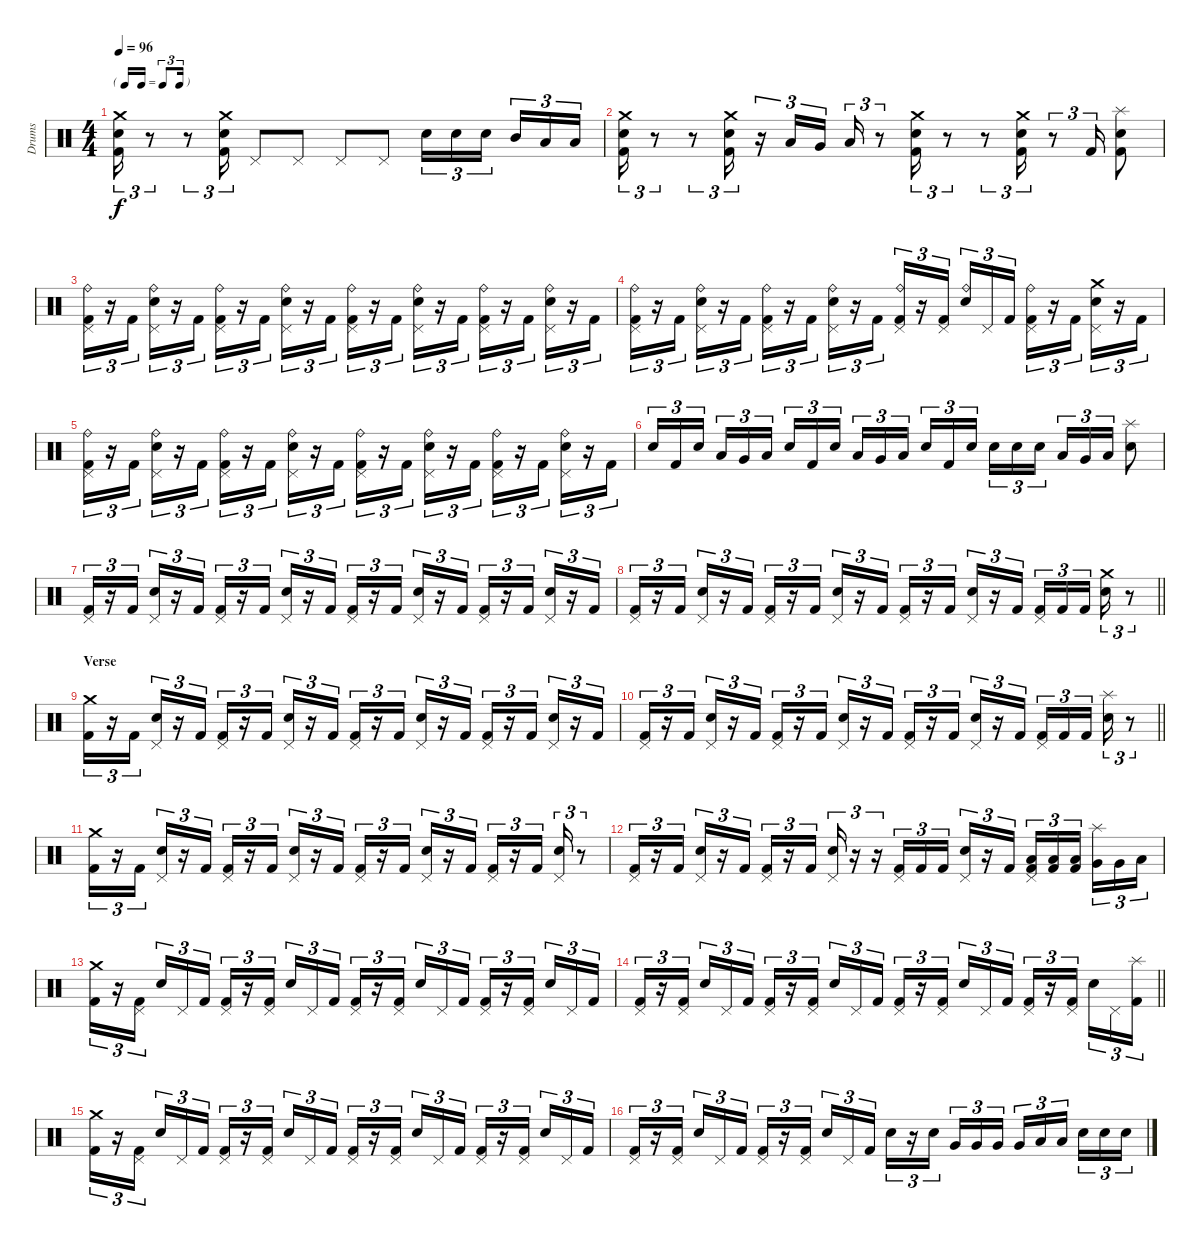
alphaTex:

\track ("Drums" "Drums") {instrument percussion}
\staff {score}
\articulation defaults
\ts (4 4)
\tf triplet16th
\tempo 96
\clef neutral
\ks c
("Crash medium (hit)" "Snare (hit) 2" "Kick (hit) 2").16{tu (3 2) dy f} r.8{tu (3 2)} r.8{tu (3 2)} ("Crash medium (hit)" "Snare (hit) 2" "Kick (hit) 2").16{tu (3 2)} "Pedal Hi-Hat (hit)".8 "Pedal Hi-Hat (hit)".8 "Pedal Hi-Hat (hit)".8 "Pedal Hi-Hat (hit)".8 "Snare (hit) 2".16{tu (3 2)} "Snare (hit) 2".16{tu (3 2)} "Snare (hit) 2".16{tu (3 2) beam splitsecondary} "Mid Tom (hit)".16{tu (3 2)} "Low Tom (hit)".16{tu (3 2)} "Low Floor Tom (hit)".16{tu (3 2)} |
("Crash medium (hit)" "Snare (hit) 2" "Kick (hit) 2").16{tu (3 2)} r.8{tu (3 2)} r.8{tu (3 2)} ("Crash medium (hit)" "Snare (hit) 2" "Kick (hit) 2").16{tu (3 2)} r.16{tu (3 2)} "Low Tom (hit)".16{tu (3 2)} "Very Low Tom (hit)".16{tu (3 2) beam splitsecondary} "Low Floor Tom (hit)".16{tu (3 2)} r.8{tu (3 2)} ("Crash medium (hit)" "Snare (hit) 2" "Kick (hit) 2").16{tu (3 2)} r.8{tu (3 2)} r.8{tu (3 2)} ("Crash medium (hit)" "Snare (hit) 2" "Kick (hit) 2").16{tu (3 2)} r.8{tu (3 2)} "Kick (hit) 2".16{tu (3 2)} ("Splash (hit)" "Snare (hit) 2" "Kick (hit) 2").8 |
("Ride (bell)" "Pedal Hi-Hat (hit)" "Kick (hit) 2").16{tu (3 2)} r.16{tu (3 2)} "Kick (hit) 2".16{tu (3 2)} ("Ride (bell)" "Pedal Hi-Hat (hit)" "Snare (hit) 2").16{tu (3 2)} r.16{tu (3 2)} "Kick (hit) 2".16{tu (3 2)} ("Ride (bell)" "Pedal Hi-Hat (hit)" "Kick (hit) 2").16{tu (3 2)} r.16{tu (3 2)} "Kick (hit) 2".16{tu (3 2)} ("Ride (bell)" "Pedal Hi-Hat (hit)" "Snare (hit) 2").16{tu (3 2)} r.16{tu (3 2)} "Kick (hit) 2".16{tu (3 2)} ("Ride (bell)" "Pedal Hi-Hat (hit)" "Kick (hit) 2").16{tu (3 2)} r.16{tu (3 2)} "Kick (hit) 2".16{tu (3 2)} ("Ride (bell)" "Pedal Hi-Hat (hit)" "Snare (hit) 2").16{tu (3 2)} r.16{tu (3 2)} "Kick (hit) 2".16{tu (3 2)} ("Ride (bell)" "Pedal Hi-Hat (hit)" "Kick (hit) 2").16{tu (3 2)} r.16{tu (3 2)} "Kick (hit) 2".16{tu (3 2)} ("Ride (bell)" "Pedal Hi-Hat (hit)" "Snare (hit) 2").16{tu (3 2)} r.16{tu (3 2)} "Kick (hit) 2".16{tu (3 2)} |
("Ride (bell)" "Pedal Hi-Hat (hit)" "Kick (hit) 2").16{tu (3 2)} r.16{tu (3 2)} "Kick (hit) 2".16{tu (3 2)} ("Ride (bell)" "Pedal Hi-Hat (hit)" "Snare (hit) 2").16{tu (3 2)} r.16{tu (3 2)} "Kick (hit) 2".16{tu (3 2)} ("Ride (bell)" "Pedal Hi-Hat (hit)" "Kick (hit) 2").16{tu (3 2)} r.16{tu (3 2)} "Kick (hit) 2".16{tu (3 2)} ("Ride (bell)" "Pedal Hi-Hat (hit)" "Snare (hit) 2").16{tu (3 2)} r.16{tu (3 2)} "Kick (hit) 2".16{tu (3 2)} ("Ride (bell)" "Pedal Hi-Hat (hit)" "Kick (hit) 2").16{tu (3 2)} r.16{tu (3 2)} ("Pedal Hi-Hat (hit)" "Kick (hit) 2").16{tu (3 2) beam splitsecondary} ("Ride (bell)" "Snare (hit) 2").16{tu (3 2)} "Pedal Hi-Hat (hit)".16{tu (3 2)} "Kick (hit) 2".16{tu (3 2)} ("Ride (bell)" "Pedal Hi-Hat (hit)" "Kick (hit) 2").16{tu (3 2)} r.16{tu (3 2)} "Kick (hit) 2".16{tu (3 2)} ("Crash medium (hit)" "Pedal Hi-Hat (hit)" "Snare (hit) 2").16{tu (3 2)} r.16{tu (3 2)} "Kick (hit) 2".16{tu (3 2)} |
("Ride (bell)" "Pedal Hi-Hat (hit)" "Kick (hit) 2").16{tu (3 2)} r.16{tu (3 2)} "Kick (hit) 2".16{tu (3 2)} ("Ride (bell)" "Pedal Hi-Hat (hit)" "Snare (hit) 2").16{tu (3 2)} r.16{tu (3 2)} "Kick (hit) 2".16{tu (3 2)} ("Ride (bell)" "Pedal Hi-Hat (hit)" "Kick (hit) 2").16{tu (3 2)} r.16{tu (3 2)} "Kick (hit) 2".16{tu (3 2)} ("Ride (bell)" "Pedal Hi-Hat (hit)" "Snare (hit) 2").16{tu (3 2)} r.16{tu (3 2)} "Kick (hit) 2".16{tu (3 2)} ("Ride (bell)" "Pedal Hi-Hat (hit)" "Kick (hit) 2").16{tu (3 2)} r.16{tu (3 2)} "Kick (hit) 2".16{tu (3 2)} ("Ride (bell)" "Pedal Hi-Hat (hit)" "Snare (hit) 2").16{tu (3 2)} r.16{tu (3 2)} "Kick (hit) 2".16{tu (3 2)} ("Ride (bell)" "Pedal Hi-Hat (hit)" "Kick (hit) 2").16{tu (3 2)} r.16{tu (3 2)} "Kick (hit) 2".16{tu (3 2)} ("Ride (bell)" "Pedal Hi-Hat (hit)" "Snare (hit) 2").16{tu (3 2)} r.16{tu (3 2)} "Kick (hit) 2".16{tu (3 2)} |
"Snare (hit) 2".16{tu (3 2)} "Kick (hit) 2".16{tu (3 2)} "Snare (hit) 2".16{tu (3 2) beam splitsecondary} "Low Tom (hit)".16{tu (3 2)} "Very Low Tom (hit)".16{tu (3 2)} "Low Floor Tom (hit)".16{tu (3 2)} "Snare (hit) 2".16{tu (3 2)} "Kick (hit) 2".16{tu (3 2)} "Snare (hit) 2".16{tu (3 2) beam splitsecondary} "Low Tom (hit)".16{tu (3 2)} "Very Low Tom (hit)".16{tu (3 2)} "Low Floor Tom (hit)".16{tu (3 2)} "Snare (hit) 2".16{tu (3 2)} "Kick (hit) 2".16{tu (3 2)} "Snare (hit) 2".16{tu (3 2) beam splitsecondary} "Snare (hit) 2".16{tu (3 2)} "Snare (hit) 2".16{tu (3 2)} "Snare (hit) 2".16{tu (3 2)} "Low Tom (hit)".16{tu (3 2)} "Very Low Tom (hit)".16{tu (3 2)} "Low Floor Tom (hit)".16{tu (3 2)} ("Splash (hit)" "Snare (hit) 2").8 |
("Pedal Hi-Hat (hit)" "Kick (hit) 2").16{tu (3 2)} r.16{tu (3 2)} "Kick (hit) 2".16{tu (3 2)} ("Pedal Hi-Hat (hit)" "Snare (hit) 2").16{tu (3 2)} r.16{tu (3 2)} "Kick (hit) 2".16{tu (3 2)} ("Pedal Hi-Hat (hit)" "Kick (hit) 2").16{tu (3 2)} r.16{tu (3 2)} "Kick (hit) 2".16{tu (3 2)} ("Pedal Hi-Hat (hit)" "Snare (hit) 2").16{tu (3 2)} r.16{tu (3 2)} "Kick (hit) 2".16{tu (3 2)} ("Pedal Hi-Hat (hit)" "Kick (hit) 2").16{tu (3 2)} r.16{tu (3 2)} "Kick (hit) 2".16{tu (3 2)} ("Pedal Hi-Hat (hit)" "Snare (hit) 2").16{tu (3 2)} r.16{tu (3 2)} "Kick (hit) 2".16{tu (3 2)} ("Pedal Hi-Hat (hit)" "Kick (hit) 2").16{tu (3 2)} r.16{tu (3 2)} "Kick (hit) 2".16{tu (3 2)} ("Pedal Hi-Hat (hit)" "Snare (hit) 2").16{tu (3 2)} r.16{tu (3 2)} "Kick (hit) 2".16{tu (3 2)} |
\barLineRight lightlight
("Pedal Hi-Hat (hit)" "Kick (hit) 2").16{tu (3 2)} r.16{tu (3 2)} "Kick (hit) 2".16{tu (3 2)} ("Pedal Hi-Hat (hit)" "Snare (hit) 2").16{tu (3 2)} r.16{tu (3 2)} "Kick (hit) 2".16{tu (3 2)} ("Pedal Hi-Hat (hit)" "Kick (hit) 2").16{tu (3 2)} r.16{tu (3 2)} "Kick (hit) 2".16{tu (3 2)} ("Pedal Hi-Hat (hit)" "Snare (hit) 2").16{tu (3 2)} r.16{tu (3 2)} "Kick (hit) 2".16{tu (3 2)} ("Pedal Hi-Hat (hit)" "Kick (hit) 2").16{tu (3 2)} r.16{tu (3 2)} "Kick (hit) 2".16{tu (3 2)} ("Pedal Hi-Hat (hit)" "Snare (hit) 2").16{tu (3 2)} r.16{tu (3 2)} "Kick (hit) 2".16{tu (3 2)} ("Pedal Hi-Hat (hit)" "Kick (hit) 2").16{tu (3 2)} "Kick (hit) 2".16{tu (3 2)} "Kick (hit) 2".16{tu (3 2) beam splitsecondary} ("Crash medium (hit)" "Snare (hit) 2").16{tu (3 2)} r.8{tu (3 2)} |
\section ("" "Verse")
("Crash medium (hit)" "Kick (hit) 2").16{tu (3 2)} r.16{tu (3 2)} "Kick (hit) 2".16{tu (3 2)} ("Pedal Hi-Hat (hit)" "Snare (hit) 2").16{tu (3 2)} r.16{tu (3 2)} "Kick (hit) 2".16{tu (3 2)} ("Pedal Hi-Hat (hit)" "Kick (hit) 2").16{tu (3 2)} r.16{tu (3 2)} "Kick (hit) 2".16{tu (3 2)} ("Pedal Hi-Hat (hit)" "Snare (hit) 2").16{tu (3 2)} r.16{tu (3 2)} "Kick (hit) 2".16{tu (3 2)} ("Pedal Hi-Hat (hit)" "Kick (hit) 2").16{tu (3 2)} r.16{tu (3 2)} "Kick (hit) 2".16{tu (3 2)} ("Pedal Hi-Hat (hit)" "Snare (hit) 2").16{tu (3 2)} r.16{tu (3 2)} "Kick (hit) 2".16{tu (3 2)} ("Pedal Hi-Hat (hit)" "Kick (hit) 2").16{tu (3 2)} r.16{tu (3 2)} "Kick (hit) 2".16{tu (3 2)} ("Pedal Hi-Hat (hit)" "Snare (hit) 2").16{tu (3 2)} r.16{tu (3 2)} "Kick (hit) 2".16{tu (3 2)} |
\barLineRight lightlight
("Pedal Hi-Hat (hit)" "Kick (hit) 2").16{tu (3 2)} r.16{tu (3 2)} "Kick (hit) 2".16{tu (3 2)} ("Pedal Hi-Hat (hit)" "Snare (hit) 2").16{tu (3 2)} r.16{tu (3 2)} "Kick (hit) 2".16{tu (3 2)} ("Pedal Hi-Hat (hit)" "Kick (hit) 2").16{tu (3 2)} r.16{tu (3 2)} "Kick (hit) 2".16{tu (3 2)} ("Pedal Hi-Hat (hit)" "Snare (hit) 2").16{tu (3 2)} r.16{tu (3 2)} "Kick (hit) 2".16{tu (3 2)} ("Pedal Hi-Hat (hit)" "Kick (hit) 2").16{tu (3 2)} r.16{tu (3 2)} "Kick (hit) 2".16{tu (3 2)} ("Pedal Hi-Hat (hit)" "Snare (hit) 2").16{tu (3 2)} r.16{tu (3 2)} "Kick (hit) 2".16{tu (3 2)} ("Pedal Hi-Hat (hit)" "Kick (hit) 2").16{tu (3 2)} "Kick (hit) 2".16{tu (3 2)} "Kick (hit) 2".16{tu (3 2) beam splitsecondary} ("Splash (hit)" "Snare (hit) 2").16{tu (3 2)} r.8{tu (3 2)} |
("Crash medium (hit)" "Kick (hit) 2").16{tu (3 2)} r.16{tu (3 2)} "Kick (hit) 2".16{tu (3 2)} ("Pedal Hi-Hat (hit)" "Snare (hit) 2").16{tu (3 2)} r.16{tu (3 2)} "Kick (hit) 2".16{tu (3 2)} ("Pedal Hi-Hat (hit)" "Kick (hit) 2").16{tu (3 2)} r.16{tu (3 2)} "Kick (hit) 2".16{tu (3 2)} ("Pedal Hi-Hat (hit)" "Snare (hit) 2").16{tu (3 2)} r.16{tu (3 2)} "Kick (hit) 2".16{tu (3 2)} ("Pedal Hi-Hat (hit)" "Kick (hit) 2").16{tu (3 2)} r.16{tu (3 2)} "Kick (hit) 2".16{tu (3 2)} ("Pedal Hi-Hat (hit)" "Snare (hit) 2").16{tu (3 2)} r.16{tu (3 2)} "Kick (hit) 2".16{tu (3 2)} ("Pedal Hi-Hat (hit)" "Kick (hit) 2").16{tu (3 2)} r.16{tu (3 2)} "Kick (hit) 2".16{tu (3 2)} ("Pedal Hi-Hat (hit)" "Snare (hit) 2").16{tu (3 2)} r.8{tu (3 2)} |
("Pedal Hi-Hat (hit)" "Kick (hit) 2").16{tu (3 2)} r.16{tu (3 2)} "Kick (hit) 2".16{tu (3 2)} ("Pedal Hi-Hat (hit)" "Snare (hit) 2").16{tu (3 2)} r.16{tu (3 2)} "Kick (hit) 2".16{tu (3 2)} ("Pedal Hi-Hat (hit)" "Kick (hit) 2").16{tu (3 2)} r.16{tu (3 2)} "Kick (hit) 2".16{tu (3 2)} ("Pedal Hi-Hat (hit)" "Snare (hit) 2").16{tu (3 2)} r.16{tu (3 2)} r.16{tu (3 2)} ("Pedal Hi-Hat (hit)" "Kick (hit) 2").16{tu (3 2)} "Kick (hit) 2".16{tu (3 2)} "Kick (hit) 2".16{tu (3 2) beam splitsecondary} ("Pedal Hi-Hat (hit)" "Snare (hit) 2").16{tu (3 2)} r.16{tu (3 2)} "Kick (hit) 2".16{tu (3 2)} ("Pedal Hi-Hat (hit)" "Low Tom (hit)" "Kick (hit) 2").16{tu (3 2)} ("Low Tom (hit)" "Kick (hit) 2").16{tu (3 2)} ("Low Tom (hit)" "Kick (hit) 2").16{tu (3 2) beam splitsecondary} ("Splash (hit)" "Very Low Tom (hit)").16{tu (3 2)} "Very Low Tom (hit)".16{tu (3 2)} "Low Floor Tom (hit)".16{tu (3 2)} |
("Crash medium (hit)" "Kick (hit) 2").16{tu (3 2)} r.16{tu (3 2)} ("Pedal Hi-Hat (hit)" "Kick (hit) 2").16{tu (3 2) beam splitsecondary} "Snare (hit) 2".16{tu (3 2)} "Pedal Hi-Hat (hit)".16{tu (3 2)} "Kick (hit) 2".16{tu (3 2)} ("Pedal Hi-Hat (hit)" "Kick (hit) 2").16{tu (3 2)} r.16{tu (3 2)} ("Pedal Hi-Hat (hit)" "Kick (hit) 2").16{tu (3 2) beam splitsecondary} "Snare (hit) 2".16{tu (3 2)} "Pedal Hi-Hat (hit)".16{tu (3 2)} "Kick (hit) 2".16{tu (3 2)} ("Pedal Hi-Hat (hit)" "Kick (hit) 2").16{tu (3 2)} r.16{tu (3 2)} ("Pedal Hi-Hat (hit)" "Kick (hit) 2").16{tu (3 2) beam splitsecondary} "Snare (hit) 2".16{tu (3 2)} "Pedal Hi-Hat (hit)".16{tu (3 2)} "Kick (hit) 2".16{tu (3 2)} ("Pedal Hi-Hat (hit)" "Kick (hit) 2").16{tu (3 2)} r.16{tu (3 2)} ("Pedal Hi-Hat (hit)" "Kick (hit) 2").16{tu (3 2) beam splitsecondary} "Snare (hit) 2".16{tu (3 2)} "Pedal Hi-Hat (hit)".16{tu (3 2)} "Kick (hit) 2".16{tu (3 2)} |
\barLineRight lightlight
("Pedal Hi-Hat (hit)" "Kick (hit) 2").16{tu (3 2)} r.16{tu (3 2)} ("Pedal Hi-Hat (hit)" "Kick (hit) 2").16{tu (3 2) beam splitsecondary} "Snare (hit) 2".16{tu (3 2)} "Pedal Hi-Hat (hit)".16{tu (3 2)} "Kick (hit) 2".16{tu (3 2)} ("Pedal Hi-Hat (hit)" "Kick (hit) 2").16{tu (3 2)} r.16{tu (3 2)} ("Pedal Hi-Hat (hit)" "Kick (hit) 2").16{tu (3 2) beam splitsecondary} "Snare (hit) 2".16{tu (3 2)} "Pedal Hi-Hat (hit)".16{tu (3 2)} "Kick (hit) 2".16{tu (3 2)} ("Pedal Hi-Hat (hit)" "Kick (hit) 2").16{tu (3 2)} r.16{tu (3 2)} ("Pedal Hi-Hat (hit)" "Kick (hit) 2").16{tu (3 2) beam splitsecondary} "Snare (hit) 2".16{tu (3 2)} "Pedal Hi-Hat (hit)".16{tu (3 2)} "Kick (hit) 2".16{tu (3 2)} ("Pedal Hi-Hat (hit)" "Kick (hit) 2").16{tu (3 2)} r.16{tu (3 2)} ("Pedal Hi-Hat (hit)" "Kick (hit) 2").16{tu (3 2) beam splitsecondary} "Snare (hit) 2".16{tu (3 2)} "Pedal Hi-Hat (hit)".16{tu (3 2)} ("Splash (hit)" "Kick (hit) 2").16{tu (3 2)} |
("Crash medium (hit)" "Kick (hit) 2").16{tu (3 2)} r.16{tu (3 2)} ("Pedal Hi-Hat (hit)" "Kick (hit) 2").16{tu (3 2) beam splitsecondary} "Snare (hit) 2".16{tu (3 2)} "Pedal Hi-Hat (hit)".16{tu (3 2)} "Kick (hit) 2".16{tu (3 2)} ("Pedal Hi-Hat (hit)" "Kick (hit) 2").16{tu (3 2)} r.16{tu (3 2)} ("Pedal Hi-Hat (hit)" "Kick (hit) 2").16{tu (3 2) beam splitsecondary} "Snare (hit) 2".16{tu (3 2)} "Pedal Hi-Hat (hit)".16{tu (3 2)} "Kick (hit) 2".16{tu (3 2)} ("Pedal Hi-Hat (hit)" "Kick (hit) 2").16{tu (3 2)} r.16{tu (3 2)} ("Pedal Hi-Hat (hit)" "Kick (hit) 2").16{tu (3 2) beam splitsecondary} "Snare (hit) 2".16{tu (3 2)} "Pedal Hi-Hat (hit)".16{tu (3 2)} "Kick (hit) 2".16{tu (3 2)} ("Pedal Hi-Hat (hit)" "Kick (hit) 2").16{tu (3 2)} r.16{tu (3 2)} ("Pedal Hi-Hat (hit)" "Kick (hit) 2").16{tu (3 2) beam splitsecondary} "Snare (hit) 2".16{tu (3 2)} "Pedal Hi-Hat (hit)".16{tu (3 2)} "Kick (hit) 2".16{tu (3 2)} |
("Pedal Hi-Hat (hit)" "Kick (hit) 2").16{tu (3 2)} r.16{tu (3 2)} ("Pedal Hi-Hat (hit)" "Kick (hit) 2").16{tu (3 2) beam splitsecondary} "Snare (hit) 2".16{tu (3 2)} "Pedal Hi-Hat (hit)".16{tu (3 2)} "Kick (hit) 2".16{tu (3 2)} ("Pedal Hi-Hat (hit)" "Kick (hit) 2").16{tu (3 2)} r.16{tu (3 2)} ("Pedal Hi-Hat (hit)" "Kick (hit) 2").16{tu (3 2) beam splitsecondary} "Snare (hit) 2".16{tu (3 2)} "Pedal Hi-Hat (hit)".16{tu (3 2)} "Kick (hit) 2".16{tu (3 2)} "Snare (hit) 2".16{tu (3 2)} r.16{tu (3 2)} "Snare (hit) 2".16{tu (3 2) beam splitsecondary} "Very Low Tom (hit)".16{tu (3 2)} "Very Low Tom (hit)".16{tu (3 2)} "Very Low Tom (hit)".16{tu (3 2)} "Very Low Tom (hit)".16{tu (3 2)} "Low Floor Tom (hit)".16{tu (3 2)} "Low Floor Tom (hit)".16{tu (3 2) beam splitsecondary} "Snare (hit) 2".16{tu (3 2)} "Snare (hit) 2".16{tu (3 2)} "Snare (hit) 2".16{tu (3 2)}
